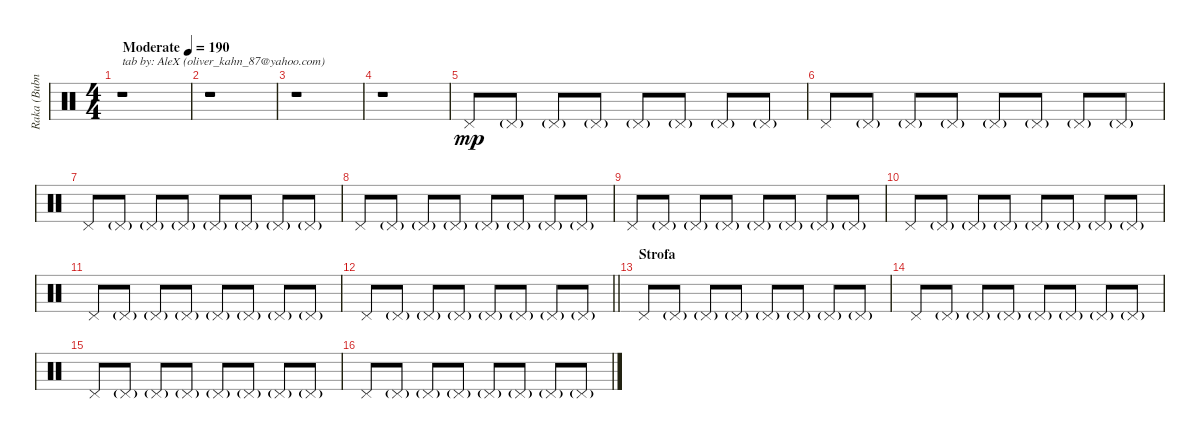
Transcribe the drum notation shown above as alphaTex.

\track ("Raka (Bubnjevi)" "Raka (Bubn") {instrument percussion}
\staff {score}
\articulation defaults
\ts (4 4)
\tempo (190 "Moderate")
\clef neutral
\ks c
r.1{txt "tab by: AleX (oliver_kahn_87@yahoo.com)" dy mp} |
r.1 |
r.1 |
r.1 |
"Pedal Hi-Hat (hit)".8 "Pedal Hi-Hat (hit)"{g}.8 "Pedal Hi-Hat (hit)"{g}.8 "Pedal Hi-Hat (hit)"{g}.8 "Pedal Hi-Hat (hit)"{g}.8 "Pedal Hi-Hat (hit)"{g}.8 "Pedal Hi-Hat (hit)"{g}.8 "Pedal Hi-Hat (hit)"{g}.8 |
"Pedal Hi-Hat (hit)".8 "Pedal Hi-Hat (hit)"{g}.8 "Pedal Hi-Hat (hit)"{g}.8 "Pedal Hi-Hat (hit)"{g}.8 "Pedal Hi-Hat (hit)"{g}.8 "Pedal Hi-Hat (hit)"{g}.8 "Pedal Hi-Hat (hit)"{g}.8 "Pedal Hi-Hat (hit)"{g}.8 |
"Pedal Hi-Hat (hit)".8 "Pedal Hi-Hat (hit)"{g}.8 "Pedal Hi-Hat (hit)"{g}.8 "Pedal Hi-Hat (hit)"{g}.8 "Pedal Hi-Hat (hit)"{g}.8 "Pedal Hi-Hat (hit)"{g}.8 "Pedal Hi-Hat (hit)"{g}.8 "Pedal Hi-Hat (hit)"{g}.8 |
"Pedal Hi-Hat (hit)".8 "Pedal Hi-Hat (hit)"{g}.8 "Pedal Hi-Hat (hit)"{g}.8 "Pedal Hi-Hat (hit)"{g}.8 "Pedal Hi-Hat (hit)"{g}.8 "Pedal Hi-Hat (hit)"{g}.8 "Pedal Hi-Hat (hit)"{g}.8 "Pedal Hi-Hat (hit)"{g}.8 |
"Pedal Hi-Hat (hit)".8 "Pedal Hi-Hat (hit)"{g}.8 "Pedal Hi-Hat (hit)"{g}.8 "Pedal Hi-Hat (hit)"{g}.8 "Pedal Hi-Hat (hit)"{g}.8 "Pedal Hi-Hat (hit)"{g}.8 "Pedal Hi-Hat (hit)"{g}.8 "Pedal Hi-Hat (hit)"{g}.8 |
"Pedal Hi-Hat (hit)".8 "Pedal Hi-Hat (hit)"{g}.8 "Pedal Hi-Hat (hit)"{g}.8 "Pedal Hi-Hat (hit)"{g}.8 "Pedal Hi-Hat (hit)"{g}.8 "Pedal Hi-Hat (hit)"{g}.8 "Pedal Hi-Hat (hit)"{g}.8 "Pedal Hi-Hat (hit)"{g}.8 |
"Pedal Hi-Hat (hit)".8 "Pedal Hi-Hat (hit)"{g}.8 "Pedal Hi-Hat (hit)"{g}.8 "Pedal Hi-Hat (hit)"{g}.8 "Pedal Hi-Hat (hit)"{g}.8 "Pedal Hi-Hat (hit)"{g}.8 "Pedal Hi-Hat (hit)"{g}.8 "Pedal Hi-Hat (hit)"{g}.8 |
\barLineRight lightlight "Pedal Hi-Hat (hit)".8 "Pedal Hi-Hat (hit)"{g}.8 "Pedal Hi-Hat (hit)"{g}.8 "Pedal Hi-Hat (hit)"{g}.8 "Pedal Hi-Hat (hit)"{g}.8 "Pedal Hi-Hat (hit)"{g}.8 "Pedal Hi-Hat (hit)"{g}.8 "Pedal Hi-Hat (hit)"{g}.8
|
\section ("" "Strofa")
"Pedal Hi-Hat (hit)".8 "Pedal Hi-Hat (hit)"{g}.8 "Pedal Hi-Hat (hit)"{g}.8 "Pedal Hi-Hat (hit)"{g}.8 "Pedal Hi-Hat (hit)"{g}.8 "Pedal Hi-Hat (hit)"{g}.8 "Pedal Hi-Hat (hit)"{g}.8 "Pedal Hi-Hat (hit)"{g}.8 |
"Pedal Hi-Hat (hit)".8 "Pedal Hi-Hat (hit)"{g}.8 "Pedal Hi-Hat (hit)"{g}.8 "Pedal Hi-Hat (hit)"{g}.8 "Pedal Hi-Hat (hit)"{g}.8 "Pedal Hi-Hat (hit)"{g}.8 "Pedal Hi-Hat (hit)"{g}.8 "Pedal Hi-Hat (hit)"{g}.8 |
"Pedal Hi-Hat (hit)".8 "Pedal Hi-Hat (hit)"{g}.8 "Pedal Hi-Hat (hit)"{g}.8 "Pedal Hi-Hat (hit)"{g}.8 "Pedal Hi-Hat (hit)"{g}.8 "Pedal Hi-Hat (hit)"{g}.8 "Pedal Hi-Hat (hit)"{g}.8 "Pedal Hi-Hat (hit)"{g}.8 |
"Pedal Hi-Hat (hit)".8 "Pedal Hi-Hat (hit)"{g}.8 "Pedal Hi-Hat (hit)"{g}.8 "Pedal Hi-Hat (hit)"{g}.8 "Pedal Hi-Hat (hit)"{g}.8 "Pedal Hi-Hat (hit)"{g}.8 "Pedal Hi-Hat (hit)"{g}.8 "Pedal Hi-Hat (hit)"{g}.8
